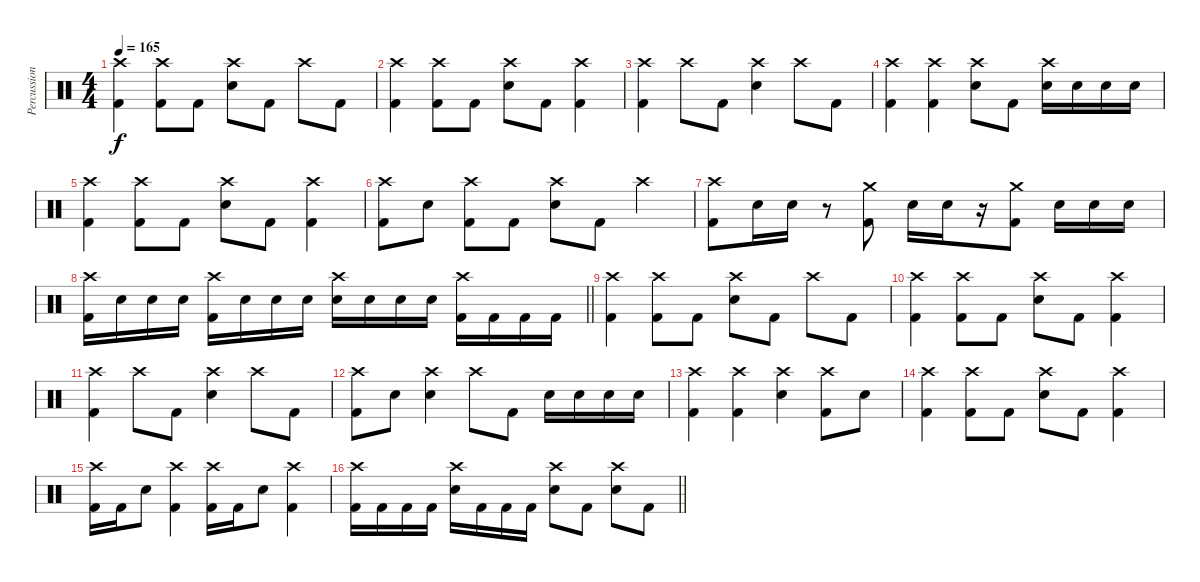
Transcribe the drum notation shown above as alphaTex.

\track ("Percussion" "Percussion") {instrument percussion}
\staff {score}
\articulation defaults
\ts (4 4)
\tempo 165
\clef neutral
\ks c
("Crash high (hit)" "Kick (hit) 2").4{dy f} ("Crash high (hit)" "Kick (hit) 2").8 "Kick (hit) 2".8 ("Crash high (hit)" "Electric Snare (hit)").8 "Kick (hit) 2".8 "Crash high (hit)".8 "Kick (hit) 2".8 |
("Crash high (hit)" "Kick (hit) 2").4 ("Crash high (hit)" "Kick (hit) 2").8 "Kick (hit) 2".8 ("Crash high (hit)" "Electric Snare (hit)").8 "Kick (hit) 2".8 ("Crash high (hit)" "Kick (hit) 2").4 |
("Crash high (hit)" "Kick (hit) 2").4 "Crash high (hit)".8 "Kick (hit) 2".8 ("Crash high (hit)" "Electric Snare (hit)").4 "Crash high (hit)".8 "Kick (hit) 2".8 |
("Crash high (hit)" "Kick (hit) 2").4 ("Crash high (hit)" "Kick (hit) 2").4 ("Crash high (hit)" "Electric Snare (hit)").8 "Kick (hit) 2".8 ("Crash high (hit)" "Electric Snare (hit)").16 "Electric Snare (hit)".16 "Electric Snare (hit)".16 "Electric Snare (hit)".16 |
("Crash high (hit)" "Kick (hit) 2").4 ("Crash high (hit)" "Kick (hit) 2").8 "Kick (hit) 2".8 ("Crash high (hit)" "Electric Snare (hit)").8 "Kick (hit) 2".8 ("Crash high (hit)" "Kick (hit) 2").4 |
("Crash high (hit)" "Kick (hit) 2").8 "Electric Snare (hit)".8 ("Crash high (hit)" "Kick (hit) 2").8 "Kick (hit) 2".8 ("Crash high (hit)" "Electric Snare (hit)").8 "Kick (hit) 2".8 "Crash high (hit)".4 |
("Crash high (hit)" "Kick (hit) 2").8 "Electric Snare (hit)".16 "Electric Snare (hit)".16 r.8 ("Crash medium (hit)" "Kick (hit) 2").8 "Electric Snare (hit)".16 "Electric Snare (hit)".16 r.16 ("Crash medium (hit)" "Kick (hit) 2").8 "Electric Snare (hit)".16 "Electric Snare (hit)".16 "Electric Snare (hit)".16 |
\barLineRight lightlight
("Crash high (hit)" "Kick (hit) 2").16 "Electric Snare (hit)".16 "Electric Snare (hit)".16 "Electric Snare (hit)".16 ("Crash high (hit)" "Kick (hit) 2").16 "Electric Snare (hit)".16 "Electric Snare (hit)".16 "Electric Snare (hit)".16 ("Crash high (hit)" "Electric Snare (hit)").16 "Electric Snare (hit)".16 "Electric Snare (hit)".16 "Electric Snare (hit)".16 ("Crash high (hit)" "Kick (hit) 2").16 "Kick (hit) 2".16 "Kick (hit) 2".16 "Kick (hit) 2".16 |
("Crash high (hit)" "Kick (hit) 2").4 ("Crash high (hit)" "Kick (hit) 2").8 "Kick (hit) 2".8 ("Crash high (hit)" "Electric Snare (hit)").8 "Kick (hit) 2".8 "Crash high (hit)".8 "Kick (hit) 2".8 |
("Crash high (hit)" "Kick (hit) 2").4 ("Crash high (hit)" "Kick (hit) 2").8 "Kick (hit) 2".8 ("Crash high (hit)" "Electric Snare (hit)").8 "Kick (hit) 2".8 ("Crash high (hit)" "Kick (hit) 2").4 |
("Crash high (hit)" "Kick (hit) 2").4 "Crash high (hit)".8 "Kick (hit) 2".8 ("Crash high (hit)" "Electric Snare (hit)").4 "Crash high (hit)".8 "Kick (hit) 2".8 |
("Crash high (hit)" "Kick (hit) 2").8 "Electric Snare (hit)".8 ("Crash high (hit)" "Electric Snare (hit)").4 "Crash high (hit)".8 "Kick (hit) 2".8 "Electric Snare (hit)".16 "Electric Snare (hit)".16 "Electric Snare (hit)".16 "Electric Snare (hit)".16 |
("Crash high (hit)" "Kick (hit) 2").4 ("Crash high (hit)" "Kick (hit) 2").4 ("Crash high (hit)" "Electric Snare (hit)").4 ("Crash high (hit)" "Kick (hit) 2").8 "Electric Snare (hit)".8 |
("Crash high (hit)" "Kick (hit) 2").4 ("Crash high (hit)" "Kick (hit) 2").8 "Kick (hit) 2".8 ("Crash high (hit)" "Electric Snare (hit)").8 "Kick (hit) 2".8 ("Crash high (hit)" "Kick (hit) 2").4 |
("Crash high (hit)" "Kick (hit) 2").16 "Kick (hit) 2".16 "Electric Snare (hit)".8 ("Crash high (hit)" "Kick (hit) 2").4 ("Crash high (hit)" "Kick (hit) 2").16 "Kick (hit) 2".16 "Electric Snare (hit)".8 ("Crash high (hit)" "Kick (hit) 2").4 |
\barLineRight lightlight
("Crash high (hit)" "Kick (hit) 2").16 "Kick (hit) 2".16 "Kick (hit) 2".16 "Kick (hit) 2".16 ("Crash high (hit)" "Electric Snare (hit)").16 "Kick (hit) 2".16 "Kick (hit) 2".16 "Kick (hit) 2".16 ("Crash high (hit)" "Electric Snare (hit)").8 "Kick (hit) 2".8 ("Crash high (hit)" "Electric Snare (hit)").8 "Kick (hit) 2".8
